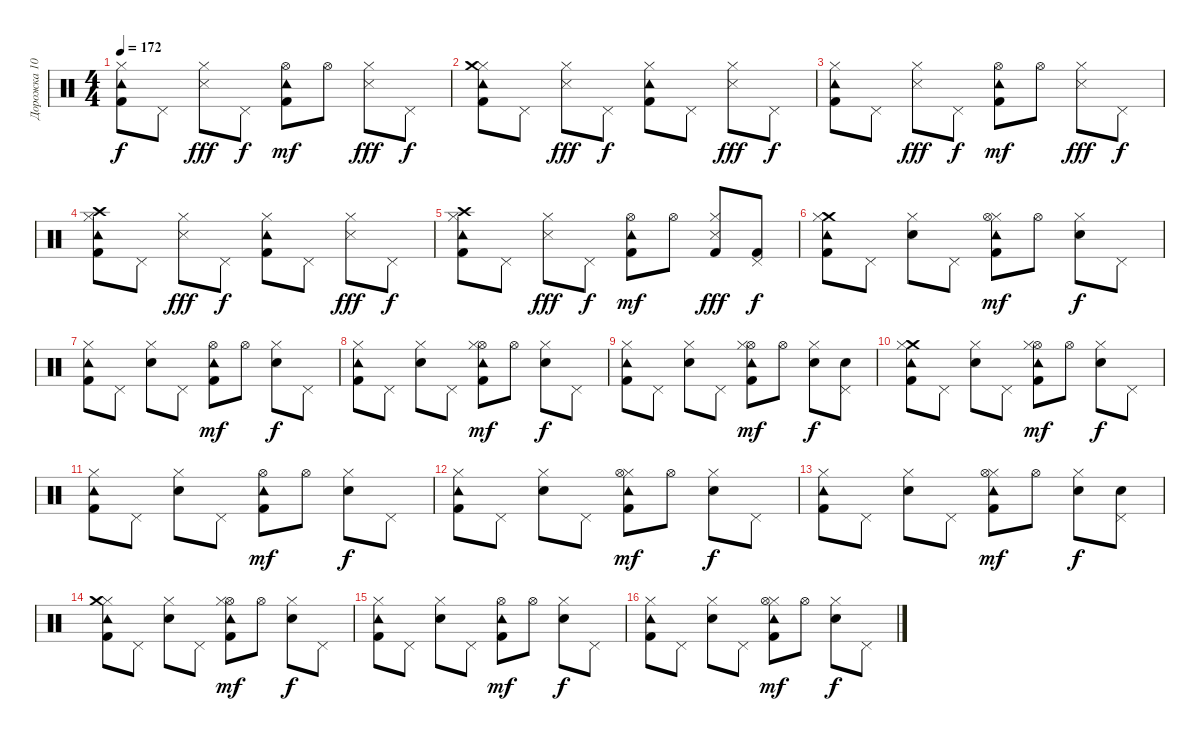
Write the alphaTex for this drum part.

\track ("Дорожка 10" "Дорожка 10") {instrument percussion}
\staff {score}
\articulation defaults
\ts (4 4)
\tempo 172
\clef neutral
\ks c
("Tambourine (hit)" "Kick (hit) 2" "Hi-Hat (closed)").8{dy f} "Pedal Hi-Hat (hit)".8 ("Snare (side stick) 3" "Hi-Hat (closed)").8{dy fff} "Pedal Hi-Hat (hit)".8{dy f} ("Kick (hit) 2" "Hi-Hat (open)" "Tambourine (hit)").8{dy mf} "Hi-Hat (open)".8 ("Snare (side stick) 3" "Hi-Hat (closed)").8{dy fff} "Pedal Hi-Hat (hit)".8{dy f} |
("Tambourine (hit)" "Kick (hit) 2" "Hi-Hat (closed)" "Crash medium (hit)").8 "Pedal Hi-Hat (hit)".8 ("Snare (side stick) 3" "Hi-Hat (closed)").8{dy fff} "Pedal Hi-Hat (hit)".8{dy f} ("Tambourine (hit)" "Hi-Hat (closed)" "Kick (hit) 2").8 "Pedal Hi-Hat (hit)".8 ("Hi-Hat (closed)" "Snare (side stick) 3").8{dy fff} "Pedal Hi-Hat (hit)".8{dy f} |
("Hi-Hat (closed)" "Kick (hit) 2" "Tambourine (hit)").8 "Pedal Hi-Hat (hit)".8 ("Snare (side stick) 3" "Hi-Hat (closed)").8{dy fff} "Pedal Hi-Hat (hit)".8{dy f} ("Tambourine (hit)" "Kick (hit) 2" "Hi-Hat (open)").8{dy mf} "Hi-Hat (open)".8 ("Snare (side stick) 3" "Hi-Hat (closed)").8{dy fff} "Pedal Hi-Hat (hit)".8{dy f} |
("Kick (hit) 2" "Hi-Hat (closed)" "Tambourine (hit)" "Crash high (hit)").8 "Pedal Hi-Hat (hit)".8 ("Snare (side stick) 3" "Hi-Hat (closed)").8{dy fff} "Pedal Hi-Hat (hit)".8{dy f} ("Kick (hit) 2" "Hi-Hat (closed)" "Tambourine (hit)").8 "Pedal Hi-Hat (hit)".8 ("Hi-Hat (closed)" "Snare (side stick) 3").8{dy fff} "Pedal Hi-Hat (hit)".8{dy f} |
("Tambourine (hit)" "Hi-Hat (closed)" "Kick (hit) 2" "Crash high (hit)").8 "Pedal Hi-Hat (hit)".8 ("Snare (side stick) 3" "Hi-Hat (closed)").8{dy fff} "Pedal Hi-Hat (hit)".8{dy f} ("Kick (hit) 2" "Hi-Hat (open)" "Tambourine (hit)").8{dy mf} "Hi-Hat (open)".8 ("Kick (hit) 2" "Snare (side stick) 3" "Hi-Hat (closed)").8{dy fff} ("Pedal Hi-Hat (hit)" "Kick (hit) 2").8{dy f} |
("Crash medium (hit)" "Hi-Hat (closed)" "Kick (hit) 2" "Tambourine (hit)").8 "Pedal Hi-Hat (hit)".8 ("Hi-Hat (closed)" "Snare (hit) 2").8 "Pedal Hi-Hat (hit)".8 ("Hi-Hat (closed)" "Kick (hit) 2" "Tambourine (hit)" "Hi-Hat (open)").8{dy mf} "Hi-Hat (open)".8 ("Snare (hit) 2" "Hi-Hat (closed)").8{dy f} "Pedal Hi-Hat (hit)".8 |
("Hi-Hat (closed)" "Tambourine (hit)" "Kick (hit) 2").8 "Pedal Hi-Hat (hit)".8 ("Hi-Hat (closed)" "Snare (hit) 2").8 "Pedal Hi-Hat (hit)".8 ("Hi-Hat (open)" "Tambourine (hit)" "Kick (hit) 2").8{dy mf} "Hi-Hat (open)".8 ("Hi-Hat (closed)" "Snare (hit) 2").8{dy f} "Pedal Hi-Hat (hit)".8 |
("Kick (hit) 2" "Hi-Hat (closed)" "Tambourine (hit)").8 "Pedal Hi-Hat (hit)".8 ("Hi-Hat (closed)" "Snare (hit) 2").8 "Pedal Hi-Hat (hit)".8 ("Kick (hit) 2" "Hi-Hat (open)" "Tambourine (hit)" "Hi-Hat (closed)").8{dy mf} "Hi-Hat (open)".8 ("Hi-Hat (closed)" "Snare (hit) 2").8{dy f} "Pedal Hi-Hat (hit)".8 |
("Kick (hit) 2" "Tambourine (hit)" "Hi-Hat (closed)").8 "Pedal Hi-Hat (hit)".8 ("Hi-Hat (closed)" "Snare (hit) 2").8 "Pedal Hi-Hat (hit)".8 ("Kick (hit) 2" "Hi-Hat (open)" "Hi-Hat (closed)" "Tambourine (hit)").8{dy mf} "Hi-Hat (open)".8 ("Hi-Hat (closed)" "Snare (hit) 2").8{dy f} ("Snare (hit) 2" "Pedal Hi-Hat (hit)").8 |
("Crash medium (hit)" "Tambourine (hit)" "Hi-Hat (closed)" "Kick (hit) 2").8 "Pedal Hi-Hat (hit)".8 ("Hi-Hat (closed)" "Snare (hit) 2").8 "Pedal Hi-Hat (hit)".8 ("Hi-Hat (open)" "Tambourine (hit)" "Kick (hit) 2" "Hi-Hat (closed)").8{dy mf} "Hi-Hat (open)".8 ("Snare (hit) 2" "Hi-Hat (closed)").8{dy f} "Pedal Hi-Hat (hit)".8 |
("Hi-Hat (closed)" "Kick (hit) 2" "Tambourine (hit)").8 "Pedal Hi-Hat (hit)".8 ("Hi-Hat (closed)" "Snare (hit) 2").8 "Pedal Hi-Hat (hit)".8 ("Hi-Hat (open)" "Kick (hit) 2" "Tambourine (hit)").8{dy mf} "Hi-Hat (open)".8 ("Hi-Hat (closed)" "Snare (hit) 2").8{dy f} "Pedal Hi-Hat (hit)".8 |
("Kick (hit) 2" "Hi-Hat (closed)" "Tambourine (hit)").8 "Pedal Hi-Hat (hit)".8 ("Hi-Hat (closed)" "Snare (hit) 2").8 "Pedal Hi-Hat (hit)".8 ("Hi-Hat (closed)" "Kick (hit) 2" "Tambourine (hit)" "Hi-Hat (open)").8{dy mf} "Hi-Hat (open)".8 ("Snare (hit) 2" "Hi-Hat (closed)").8{dy f} "Pedal Hi-Hat (hit)".8 |
("Tambourine (hit)" "Hi-Hat (closed)" "Kick (hit) 2").8 "Pedal Hi-Hat (hit)".8 ("Snare (hit) 2" "Hi-Hat (closed)").8 "Pedal Hi-Hat (hit)".8 ("Tambourine (hit)" "Hi-Hat (closed)" "Hi-Hat (open)" "Kick (hit) 2").8{dy mf} "Hi-Hat (open)".8 ("Hi-Hat (closed)" "Snare (hit) 2").8{dy f} ("Snare (hit) 2" "Pedal Hi-Hat (hit)").8 |
("Tambourine (hit)" "Kick (hit) 2" "Hi-Hat (closed)" "Crash medium (hit)").8 "Pedal Hi-Hat (hit)".8 ("Snare (hit) 2" "Hi-Hat (closed)").8 "Pedal Hi-Hat (hit)".8 ("Hi-Hat (open)" "Tambourine (hit)" "Kick (hit) 2" "Hi-Hat (closed)").8{dy mf} "Hi-Hat (open)".8 ("Hi-Hat (closed)" "Snare (hit) 2").8{dy f} "Pedal Hi-Hat (hit)".8 |
("Kick (hit) 2" "Tambourine (hit)" "Hi-Hat (closed)").8 "Pedal Hi-Hat (hit)".8 ("Snare (hit) 2" "Hi-Hat (closed)").8 "Pedal Hi-Hat (hit)".8 ("Kick (hit) 2" "Tambourine (hit)" "Hi-Hat (open)").8{dy mf} "Hi-Hat (open)".8 ("Snare (hit) 2" "Hi-Hat (closed)").8{dy f} "Pedal Hi-Hat (hit)".8 |
("Tambourine (hit)" "Hi-Hat (closed)" "Kick (hit) 2").8 "Pedal Hi-Hat (hit)".8 ("Snare (hit) 2" "Hi-Hat (closed)").8 "Pedal Hi-Hat (hit)".8 ("Hi-Hat (closed)" "Tambourine (hit)" "Hi-Hat (open)" "Kick (hit) 2").8{dy mf} "Hi-Hat (open)".8 ("Hi-Hat (closed)" "Snare (hit) 2").8{dy f} "Pedal Hi-Hat (hit)".8
